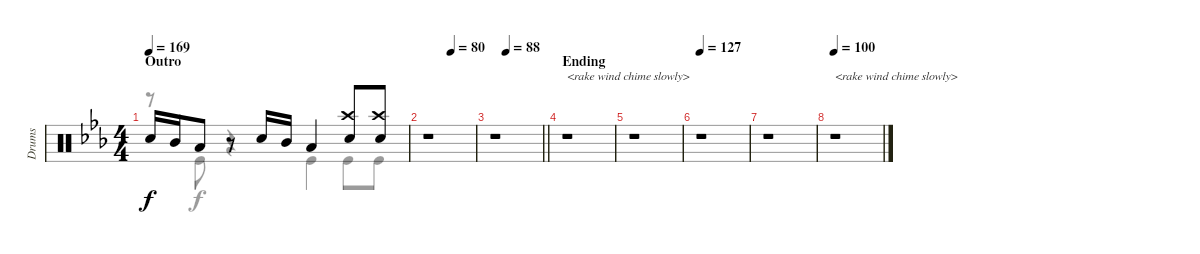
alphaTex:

\track ("Drums" "Drums") {instrument percussion}
\staff {score}
\articulation defaults
\voice
\ts (4 4)
\section ("" "Outro")
\tempo 169
\clef neutral
\ks eb "Snare (hit) 2".16{dy f} "Mid Tom (hit)".16 "Low Tom (hit)".8
r.8 "Snare (hit) 2".16 "Mid Tom (hit)".16 "Low Tom (hit)".4 ("Crash high (hit)" "Snare (hit) 2").8 ("Crash high (hit)" "Snare (hit) 2").8 |
\tempo (80 0.5)
r.1 |
\tempo (88 0.25)
\barLineRight lightlight
r.1 |
\section ("" "Ending")
r.1{txt "<rake wind chime slowly>"} |
r.1 |
\tempo 127
r.1 |
r.1 |
\tempo 100
r.1{txt "<rake wind chime slowly>"}
\voice
\clef neutral
\ottava regular
\simile none
\ks eb
r.8{dy f} "Kick (hit)".8 r.4 "Kick (hit)".4 "Kick (hit)".8 "Kick (hit)".8 |
r.1 |
\barLineRight lightlight
r.1 |
r.1 |
r.1 |
r.1 |
r.1 |
r.1
